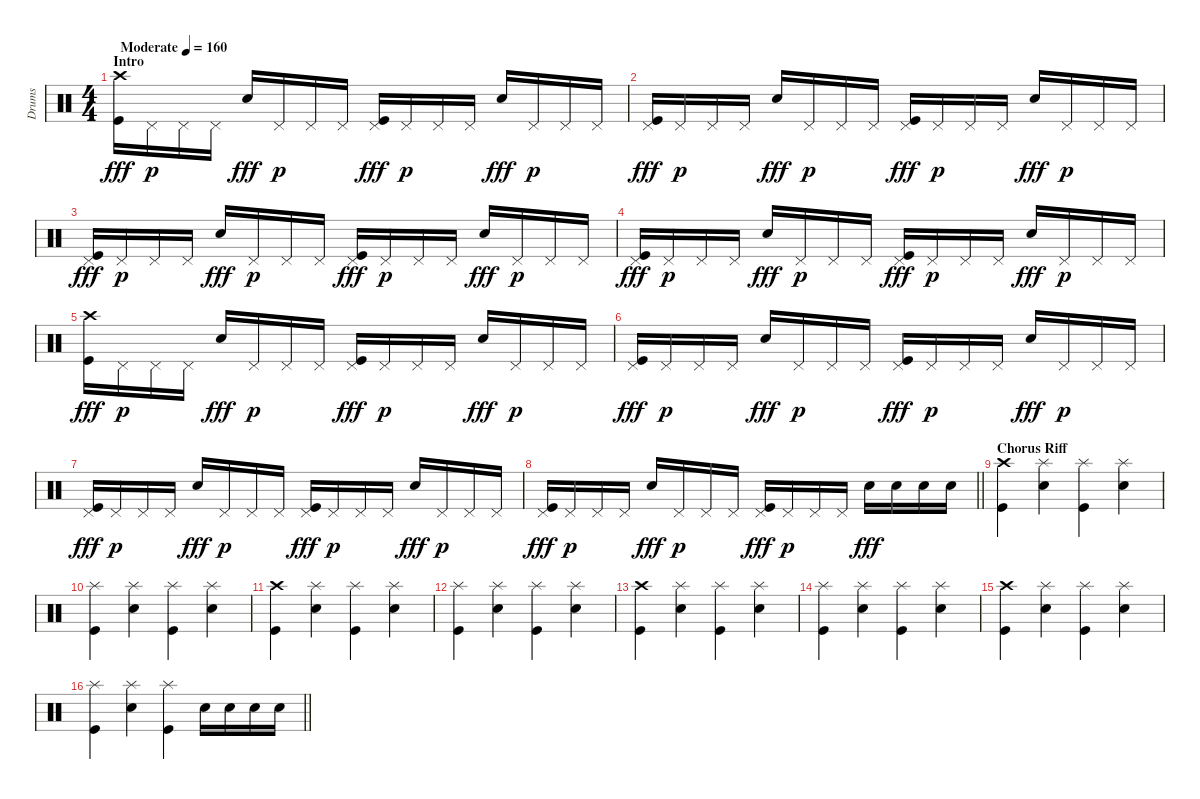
\track ("Drums" "Drums") {instrument percussion}
\staff {score}
\articulation defaults
\ts (4 4)
\section ("" "Intro")
\tempo (160 "Moderate")
\clef neutral
\ks c
("Crash high (hit)" "Kick (hit)").16{dy fff} "Pedal Hi-Hat (hit)".16{dy p} "Pedal Hi-Hat (hit)".16 "Pedal Hi-Hat (hit)".16 "Electric Snare (hit)".16{dy fff} "Pedal Hi-Hat (hit)".16{dy p} "Pedal Hi-Hat (hit)".16 "Pedal Hi-Hat (hit)".16 ("Pedal Hi-Hat (hit)" "Kick (hit)").16{dy fff} "Pedal Hi-Hat (hit)".16{dy p} "Pedal Hi-Hat (hit)".16 "Pedal Hi-Hat (hit)".16 "Electric Snare (hit)".16{dy fff} "Pedal Hi-Hat (hit)".16{dy p} "Pedal Hi-Hat (hit)".16 "Pedal Hi-Hat (hit)".16 |
("Pedal Hi-Hat (hit)" "Kick (hit)").16{dy fff} "Pedal Hi-Hat (hit)".16{dy p} "Pedal Hi-Hat (hit)".16 "Pedal Hi-Hat (hit)".16 "Electric Snare (hit)".16{dy fff} "Pedal Hi-Hat (hit)".16{dy p} "Pedal Hi-Hat (hit)".16 "Pedal Hi-Hat (hit)".16 ("Pedal Hi-Hat (hit)" "Kick (hit)").16{dy fff} "Pedal Hi-Hat (hit)".16{dy p} "Pedal Hi-Hat (hit)".16 "Pedal Hi-Hat (hit)".16 "Electric Snare (hit)".16{dy fff} "Pedal Hi-Hat (hit)".16{dy p} "Pedal Hi-Hat (hit)".16 "Pedal Hi-Hat (hit)".16 |
("Pedal Hi-Hat (hit)" "Kick (hit)").16{dy fff} "Pedal Hi-Hat (hit)".16{dy p} "Pedal Hi-Hat (hit)".16 "Pedal Hi-Hat (hit)".16 "Electric Snare (hit)".16{dy fff} "Pedal Hi-Hat (hit)".16{dy p} "Pedal Hi-Hat (hit)".16 "Pedal Hi-Hat (hit)".16 ("Pedal Hi-Hat (hit)" "Kick (hit)").16{dy fff} "Pedal Hi-Hat (hit)".16{dy p} "Pedal Hi-Hat (hit)".16 "Pedal Hi-Hat (hit)".16 "Electric Snare (hit)".16{dy fff} "Pedal Hi-Hat (hit)".16{dy p} "Pedal Hi-Hat (hit)".16 "Pedal Hi-Hat (hit)".16 |
("Pedal Hi-Hat (hit)" "Kick (hit)").16{dy fff} "Pedal Hi-Hat (hit)".16{dy p} "Pedal Hi-Hat (hit)".16 "Pedal Hi-Hat (hit)".16 "Electric Snare (hit)".16{dy fff} "Pedal Hi-Hat (hit)".16{dy p} "Pedal Hi-Hat (hit)".16 "Pedal Hi-Hat (hit)".16 ("Pedal Hi-Hat (hit)" "Kick (hit)").16{dy fff} "Pedal Hi-Hat (hit)".16{dy p} "Pedal Hi-Hat (hit)".16 "Pedal Hi-Hat (hit)".16 "Electric Snare (hit)".16{dy fff} "Pedal Hi-Hat (hit)".16{dy p} "Pedal Hi-Hat (hit)".16 "Pedal Hi-Hat (hit)".16 |
("Crash high (hit)" "Kick (hit)").16{dy fff} "Pedal Hi-Hat (hit)".16{dy p} "Pedal Hi-Hat (hit)".16 "Pedal Hi-Hat (hit)".16 "Electric Snare (hit)".16{dy fff} "Pedal Hi-Hat (hit)".16{dy p} "Pedal Hi-Hat (hit)".16 "Pedal Hi-Hat (hit)".16 ("Pedal Hi-Hat (hit)" "Kick (hit)").16{dy fff} "Pedal Hi-Hat (hit)".16{dy p} "Pedal Hi-Hat (hit)".16 "Pedal Hi-Hat (hit)".16 "Electric Snare (hit)".16{dy fff} "Pedal Hi-Hat (hit)".16{dy p} "Pedal Hi-Hat (hit)".16 "Pedal Hi-Hat (hit)".16 |
("Pedal Hi-Hat (hit)" "Kick (hit)").16{dy fff} "Pedal Hi-Hat (hit)".16{dy p} "Pedal Hi-Hat (hit)".16 "Pedal Hi-Hat (hit)".16 "Electric Snare (hit)".16{dy fff} "Pedal Hi-Hat (hit)".16{dy p} "Pedal Hi-Hat (hit)".16 "Pedal Hi-Hat (hit)".16 ("Pedal Hi-Hat (hit)" "Kick (hit)").16{dy fff} "Pedal Hi-Hat (hit)".16{dy p} "Pedal Hi-Hat (hit)".16 "Pedal Hi-Hat (hit)".16 "Electric Snare (hit)".16{dy fff} "Pedal Hi-Hat (hit)".16{dy p} "Pedal Hi-Hat (hit)".16 "Pedal Hi-Hat (hit)".16 |
("Pedal Hi-Hat (hit)" "Kick (hit)").16{dy fff} "Pedal Hi-Hat (hit)".16{dy p} "Pedal Hi-Hat (hit)".16 "Pedal Hi-Hat (hit)".16 "Electric Snare (hit)".16{dy fff} "Pedal Hi-Hat (hit)".16{dy p} "Pedal Hi-Hat (hit)".16 "Pedal Hi-Hat (hit)".16 ("Pedal Hi-Hat (hit)" "Kick (hit)").16{dy fff} "Pedal Hi-Hat (hit)".16{dy p} "Pedal Hi-Hat (hit)".16 "Pedal Hi-Hat (hit)".16 "Electric Snare (hit)".16{dy fff} "Pedal Hi-Hat (hit)".16{dy p} "Pedal Hi-Hat (hit)".16 "Pedal Hi-Hat (hit)".16 |
\barLineRight lightlight
("Pedal Hi-Hat (hit)" "Kick (hit)").16{dy fff} "Pedal Hi-Hat (hit)".16{dy p} "Pedal Hi-Hat (hit)".16 "Pedal Hi-Hat (hit)".16 "Electric Snare (hit)".16{dy fff} "Pedal Hi-Hat (hit)".16{dy p} "Pedal Hi-Hat (hit)".16 "Pedal Hi-Hat (hit)".16 ("Pedal Hi-Hat (hit)" "Kick (hit)").16{dy fff} "Pedal Hi-Hat (hit)".16{dy p} "Pedal Hi-Hat (hit)".16 "Pedal Hi-Hat (hit)".16 "Electric Snare (hit)".16{dy fff} "Electric Snare (hit)".16 "Electric Snare (hit)".16 "Electric Snare (hit)".16 |
\section ("" "Chorus Riff")
("Crash high (hit)" "Kick (hit)").4 ("Splash (hit)" "Electric Snare (hit)").4 ("Splash (hit)" "Kick (hit)").4 ("Splash (hit)" "Electric Snare (hit)").4 |
("Splash (hit)" "Kick (hit)").4 ("Splash (hit)" "Electric Snare (hit)").4 ("Splash (hit)" "Kick (hit)").4 ("Splash (hit)" "Electric Snare (hit)").4 |
("Crash high (hit)" "Kick (hit)").4 ("Splash (hit)" "Electric Snare (hit)").4 ("Splash (hit)" "Kick (hit)").4 ("Splash (hit)" "Electric Snare (hit)").4 |
("Splash (hit)" "Kick (hit)").4 ("Splash (hit)" "Electric Snare (hit)").4 ("Splash (hit)" "Kick (hit)").4 ("Splash (hit)" "Electric Snare (hit)").4 |
("Crash high (hit)" "Kick (hit)").4 ("Splash (hit)" "Electric Snare (hit)").4 ("Splash (hit)" "Kick (hit)").4 ("Splash (hit)" "Electric Snare (hit)").4 |
("Splash (hit)" "Kick (hit)").4 ("Splash (hit)" "Electric Snare (hit)").4 ("Splash (hit)" "Kick (hit)").4 ("Splash (hit)" "Electric Snare (hit)").4 |
("Crash high (hit)" "Kick (hit)").4 ("Splash (hit)" "Electric Snare (hit)").4 ("Splash (hit)" "Kick (hit)").4 ("Splash (hit)" "Electric Snare (hit)").4 |
\barLineRight lightlight
("Splash (hit)" "Kick (hit)").4 ("Splash (hit)" "Electric Snare (hit)").4 ("Splash (hit)" "Kick (hit)").4 "Electric Snare (hit)".16 "Electric Snare (hit)".16 "Electric Snare (hit)".16 "Electric Snare (hit)".16
